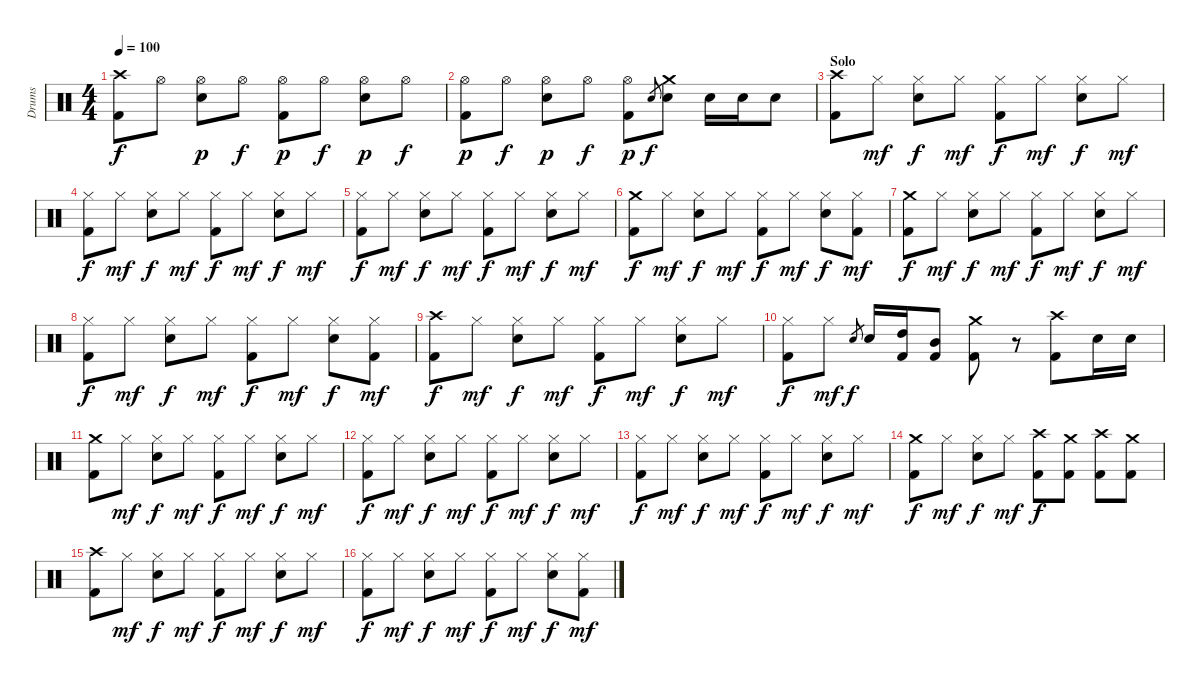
\track ("Drums" "Drums") {instrument percussion}
\staff {score}
\articulation defaults
\ts (4 4)
\tempo 100
\clef neutral
\ks c
("Crash high (hit)" "Kick (hit) 2").8{dy f} "Hi-Hat (open)".8 ("Hi-Hat (open)" "Snare (hit) 2").8{dy p} "Hi-Hat (open)".8{dy f} ("Hi-Hat (open)" "Kick (hit) 2").8{dy p} "Hi-Hat (open)".8{dy f} ("Hi-Hat (open)" "Snare (hit) 2").8{dy p} "Hi-Hat (open)".8{dy f} |
("Hi-Hat (open)" "Kick (hit) 2").8{dy p} "Hi-Hat (open)".8{dy f} ("Hi-Hat (open)" "Snare (hit) 2").8{dy p} "Hi-Hat (open)".8{dy f} ("Hi-Hat (open)" "Kick (hit) 2").8{dy p} "Snare (hit) 2".8{gr dy f} ("Crash medium (hit)" "Snare (hit) 2").8 "Snare (hit) 2".16 "Snare (hit) 2".16 "Snare (hit) 2".8 |
\section ("" "Solo")
("Crash high (hit)" "Kick (hit) 2").8 "Hi-Hat (closed)".8{dy mf} ("Hi-Hat (closed)" "Snare (hit) 2").8{dy f} "Hi-Hat (closed)".8{dy mf} ("Hi-Hat (closed)" "Kick (hit) 2").8{dy f} "Hi-Hat (closed)".8{dy mf} ("Hi-Hat (closed)" "Snare (hit) 2").8{dy f} "Hi-Hat (closed)".8{dy mf} |
("Hi-Hat (closed)" "Kick (hit) 2").8{dy f} "Hi-Hat (closed)".8{dy mf} ("Hi-Hat (closed)" "Snare (hit) 2").8{dy f} "Hi-Hat (closed)".8{dy mf} ("Hi-Hat (closed)" "Kick (hit) 2").8{dy f} "Hi-Hat (closed)".8{dy mf} ("Hi-Hat (closed)" "Snare (hit) 2").8{dy f} "Hi-Hat (closed)".8{dy mf} |
("Hi-Hat (closed)" "Kick (hit) 2").8{dy f} "Hi-Hat (closed)".8{dy mf} ("Hi-Hat (closed)" "Snare (hit) 2").8{dy f} "Hi-Hat (closed)".8{dy mf} ("Hi-Hat (closed)" "Kick (hit) 2").8{dy f} "Hi-Hat (closed)".8{dy mf} ("Hi-Hat (closed)" "Snare (hit) 2").8{dy f} "Hi-Hat (closed)".8{dy mf} |
("Crash medium (hit)" "Kick (hit) 2").8{dy f} "Hi-Hat (closed)".8{dy mf} ("Hi-Hat (closed)" "Snare (hit) 2").8{dy f} "Hi-Hat (closed)".8{dy mf} ("Hi-Hat (closed)" "Kick (hit) 2").8{dy f} "Hi-Hat (closed)".8{dy mf} ("Hi-Hat (closed)" "Snare (hit) 2").8{dy f} ("Hi-Hat (closed)" "Kick (hit) 2").8{dy mf} |
("Crash medium (hit)" "Kick (hit) 2").8{dy f} "Hi-Hat (closed)".8{dy mf} ("Hi-Hat (closed)" "Snare (hit) 2").8{dy f} "Hi-Hat (closed)".8{dy mf} ("Hi-Hat (closed)" "Kick (hit) 2").8{dy f} "Hi-Hat (closed)".8{dy mf} ("Hi-Hat (closed)" "Snare (hit) 2").8{dy f} "Hi-Hat (closed)".8{dy mf} |
("Hi-Hat (closed)" "Kick (hit) 2").8{dy f} "Hi-Hat (closed)".8{dy mf} ("Hi-Hat (closed)" "Snare (hit) 2").8{dy f} "Hi-Hat (closed)".8{dy mf} ("Hi-Hat (closed)" "Kick (hit) 2").8{dy f} "Hi-Hat (closed)".8{dy mf} ("Hi-Hat (closed)" "Snare (hit) 2").8{dy f} ("Hi-Hat (closed)" "Kick (hit) 2").8{dy mf} |
("Crash high (hit)" "Kick (hit) 2").8{dy f} "Hi-Hat (closed)".8{dy mf} ("Hi-Hat (closed)" "Snare (hit) 2").8{dy f} "Hi-Hat (closed)".8{dy mf} ("Hi-Hat (closed)" "Kick (hit) 2").8{dy f} "Hi-Hat (closed)".8{dy mf} ("Hi-Hat (closed)" "Snare (hit) 2").8{dy f} "Hi-Hat (closed)".8{dy mf} |
("Hi-Hat (closed)" "Kick (hit) 2").8{dy f} "Hi-Hat (closed)".8{dy mf} "Snare (hit) 2".8{gr dy f} "Snare (hit) 2".16 ("High Tom (hit)" "Kick (hit) 2").16 ("Mid Tom (hit)" "Kick (hit) 2").8 ("Crash medium (hit)" "Kick (hit) 2").8 r.8 ("Crash high (hit)" "Kick (hit) 2").8 "Snare (hit) 2".16 "Snare (hit) 2".16 |
("Crash medium (hit)" "Kick (hit) 2").8 "Hi-Hat (closed)".8{dy mf} ("Hi-Hat (closed)" "Snare (hit) 2").8{dy f} "Hi-Hat (closed)".8{dy mf} ("Hi-Hat (closed)" "Kick (hit) 2").8{dy f} "Hi-Hat (closed)".8{dy mf} ("Hi-Hat (closed)" "Snare (hit) 2").8{dy f} "Hi-Hat (closed)".8{dy mf} |
("Hi-Hat (closed)" "Kick (hit) 2").8{dy f} "Hi-Hat (closed)".8{dy mf} ("Hi-Hat (closed)" "Snare (hit) 2").8{dy f} "Hi-Hat (closed)".8{dy mf} ("Hi-Hat (closed)" "Kick (hit) 2").8{dy f} "Hi-Hat (closed)".8{dy mf} ("Hi-Hat (closed)" "Snare (hit) 2").8{dy f} "Hi-Hat (closed)".8{dy mf} |
("Hi-Hat (closed)" "Kick (hit) 2").8{dy f} "Hi-Hat (closed)".8{dy mf} ("Hi-Hat (closed)" "Snare (hit) 2").8{dy f} "Hi-Hat (closed)".8{dy mf} ("Hi-Hat (closed)" "Kick (hit) 2").8{dy f} "Hi-Hat (closed)".8{dy mf} ("Hi-Hat (closed)" "Snare (hit) 2").8{dy f} "Hi-Hat (closed)".8{dy mf} |
("Crash medium (hit)" "Kick (hit) 2").8{dy f} "Hi-Hat (closed)".8{dy mf} ("Hi-Hat (closed)" "Snare (hit) 2").8{dy f} "Hi-Hat (closed)".8{dy mf} ("Crash high (hit)" "Kick (hit) 2").8{dy f} ("Crash medium (hit)" "Kick (hit) 2").8 ("Crash high (hit)" "Kick (hit) 2").8 ("Crash medium (hit)" "Kick (hit) 2").8 |
("Crash high (hit)" "Kick (hit) 2").8 "Hi-Hat (closed)".8{dy mf} ("Hi-Hat (closed)" "Snare (hit) 2").8{dy f} "Hi-Hat (closed)".8{dy mf} ("Hi-Hat (closed)" "Kick (hit) 2").8{dy f} "Hi-Hat (closed)".8{dy mf} ("Hi-Hat (closed)" "Snare (hit) 2").8{dy f} "Hi-Hat (closed)".8{dy mf} |
("Hi-Hat (closed)" "Kick (hit) 2").8{dy f} "Hi-Hat (closed)".8{dy mf} ("Hi-Hat (closed)" "Snare (hit) 2").8{dy f} "Hi-Hat (closed)".8{dy mf} ("Hi-Hat (closed)" "Kick (hit) 2").8{dy f} "Hi-Hat (closed)".8{dy mf} ("Hi-Hat (closed)" "Snare (hit) 2").8{dy f} ("Hi-Hat (closed)" "Kick (hit) 2").8{dy mf}
